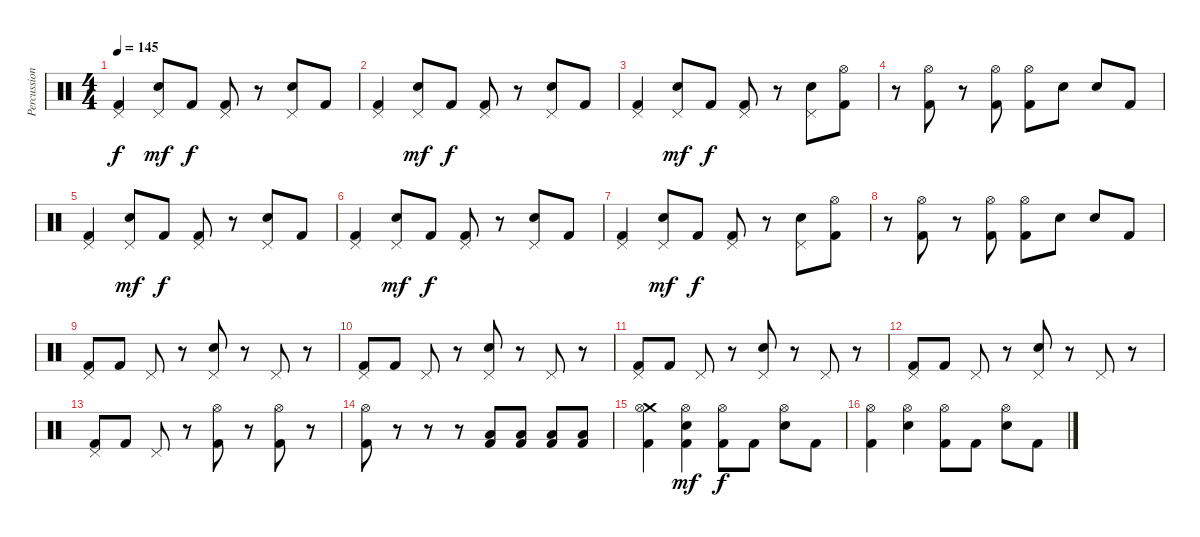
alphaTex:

\track ("Percussion" "Percussion") {instrument percussion}
\staff {score}
\articulation defaults
\ts (4 4)
\tempo 145
\clef neutral
\ks c
("Pedal Hi-Hat (hit)" "Kick (hit) 2").4{dy f} ("Pedal Hi-Hat (hit)" "Electric Snare (hit)").8{dy mf} "Kick (hit) 2".8{dy f} ("Pedal Hi-Hat (hit)" "Kick (hit) 2").8 r.8 ("Pedal Hi-Hat (hit)" "Electric Snare (hit)").8 "Kick (hit) 2".8 |
("Pedal Hi-Hat (hit)" "Kick (hit) 2").4 ("Pedal Hi-Hat (hit)" "Electric Snare (hit)").8{dy mf} "Kick (hit) 2".8{dy f} ("Pedal Hi-Hat (hit)" "Kick (hit) 2").8 r.8 ("Pedal Hi-Hat (hit)" "Electric Snare (hit)").8 "Kick (hit) 2".8 |
("Pedal Hi-Hat (hit)" "Kick (hit) 2").4 ("Pedal Hi-Hat (hit)" "Electric Snare (hit)").8{dy mf} "Kick (hit) 2".8{dy f} ("Pedal Hi-Hat (hit)" "Kick (hit) 2").8 r.8 ("Pedal Hi-Hat (hit)" "Electric Snare (hit)").8 ("Hi-Hat (open)" "Kick (hit) 2").8 |
r.8 ("Hi-Hat (open)" "Kick (hit) 2").8 r.8 ("Hi-Hat (open)" "Kick (hit) 2").8 ("Hi-Hat (open)" "Kick (hit) 2").8 "Electric Snare (hit)".8 "Electric Snare (hit)".8 "Kick (hit) 2".8 |
("Pedal Hi-Hat (hit)" "Kick (hit) 2").4 ("Pedal Hi-Hat (hit)" "Electric Snare (hit)").8{dy mf} "Kick (hit) 2".8{dy f} ("Pedal Hi-Hat (hit)" "Kick (hit) 2").8 r.8 ("Pedal Hi-Hat (hit)" "Electric Snare (hit)").8 "Kick (hit) 2".8 |
("Pedal Hi-Hat (hit)" "Kick (hit) 2").4 ("Pedal Hi-Hat (hit)" "Electric Snare (hit)").8{dy mf} "Kick (hit) 2".8{dy f} ("Pedal Hi-Hat (hit)" "Kick (hit) 2").8 r.8 ("Pedal Hi-Hat (hit)" "Electric Snare (hit)").8 "Kick (hit) 2".8 |
("Pedal Hi-Hat (hit)" "Kick (hit) 2").4 ("Pedal Hi-Hat (hit)" "Electric Snare (hit)").8{dy mf} "Kick (hit) 2".8{dy f} ("Pedal Hi-Hat (hit)" "Kick (hit) 2").8 r.8 ("Pedal Hi-Hat (hit)" "Electric Snare (hit)").8 ("Hi-Hat (open)" "Kick (hit) 2").8 |
r.8 ("Hi-Hat (open)" "Kick (hit) 2").8 r.8 ("Hi-Hat (open)" "Kick (hit) 2").8 ("Hi-Hat (open)" "Kick (hit) 2").8 "Electric Snare (hit)".8 "Electric Snare (hit)".8 "Kick (hit) 2".8 |
("Pedal Hi-Hat (hit)" "Kick (hit) 2").8 "Kick (hit) 2".8 "Pedal Hi-Hat (hit)".8 r.8 ("Pedal Hi-Hat (hit)" "Electric Snare (hit)").8 r.8 "Pedal Hi-Hat (hit)".8 r.8 |
("Pedal Hi-Hat (hit)" "Kick (hit) 2").8 "Kick (hit) 2".8 "Pedal Hi-Hat (hit)".8 r.8 ("Pedal Hi-Hat (hit)" "Electric Snare (hit)").8 r.8 "Pedal Hi-Hat (hit)".8 r.8 |
("Pedal Hi-Hat (hit)" "Kick (hit) 2").8 "Kick (hit) 2".8 "Pedal Hi-Hat (hit)".8 r.8 ("Pedal Hi-Hat (hit)" "Electric Snare (hit)").8 r.8 "Pedal Hi-Hat (hit)".8 r.8 |
("Pedal Hi-Hat (hit)" "Kick (hit) 2").8 "Kick (hit) 2".8 "Pedal Hi-Hat (hit)".8 r.8 ("Pedal Hi-Hat (hit)" "Electric Snare (hit)").8 r.8 "Pedal Hi-Hat (hit)".8 r.8 |
("Pedal Hi-Hat (hit)" "Kick (hit) 2").8 "Kick (hit) 2".8 "Pedal Hi-Hat (hit)".8 r.8 ("Hi-Hat (open)" "Kick (hit) 2").8 r.8 ("Hi-Hat (open)" "Kick (hit) 2").8 r.8 |
("Hi-Hat (open)" "Kick (hit) 2").8 r.8 r.8 r.8 ("Low Floor Tom (hit)" "Kick (hit) 2").8 ("Low Floor Tom (hit)" "Kick (hit) 2").8 ("Low Floor Tom (hit)" "Kick (hit) 2").8 ("Low Floor Tom (hit)" "Kick (hit) 2").8 |
("Crash medium (hit)" "Hi-Hat (open)" "Kick (hit) 2").4 ("Hi-Hat (open)" "Electric Snare (hit)" "Kick (hit) 2").4{dy mf} ("Hi-Hat (open)" "Kick (hit) 2").8{dy f} "Kick (hit) 2".8 ("Hi-Hat (open)" "Electric Snare (hit)").8 "Kick (hit) 2".8 |
("Hi-Hat (open)" "Kick (hit) 2").4 ("Hi-Hat (open)" "Electric Snare (hit)").4 ("Hi-Hat (open)" "Kick (hit) 2").8 "Kick (hit) 2".8 ("Hi-Hat (open)" "Electric Snare (hit)").8 "Kick (hit) 2".8
